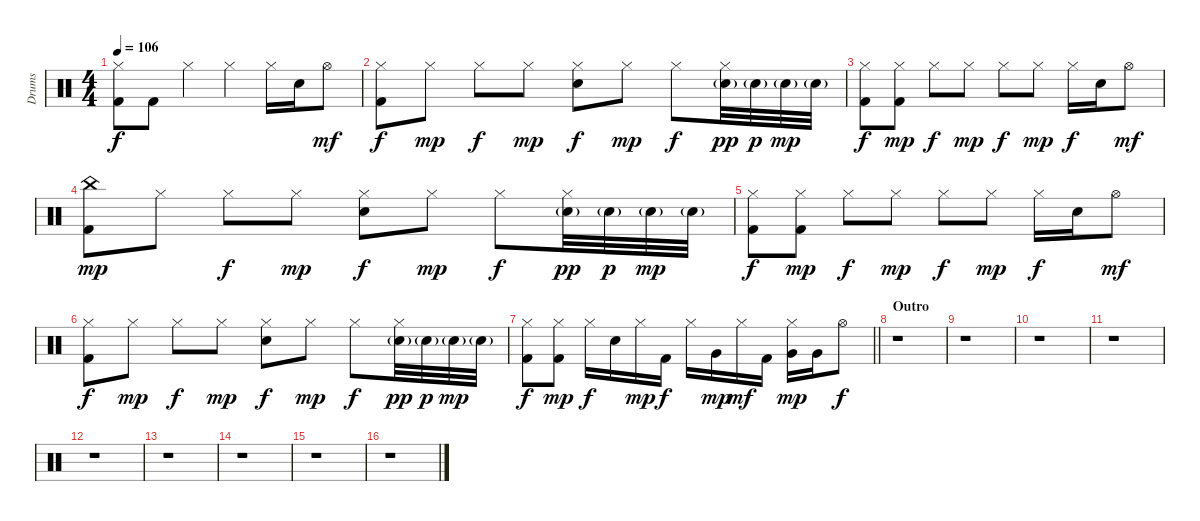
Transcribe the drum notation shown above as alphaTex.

\track ("Drums" "Drums") {instrument percussion}
\staff {score}
\articulation defaults
\ts (4 4)
\tempo 106
\clef neutral
\ks c
("Hi-Hat (closed)" "Kick (hit) 2").8{dy f} "Kick (hit) 2".8 "Hi-Hat (closed)".4 "Hi-Hat (closed)".4 "Hi-Hat (closed)".16 "Electric Snare (hit)".16 "Hi-Hat (open)".8{dy mf} |
("Hi-Hat (closed)" "Kick (hit) 2").8{dy f} "Hi-Hat (closed)".8{dy mp} "Hi-Hat (closed)".8{dy f} "Hi-Hat (closed)".8{dy mp} ("Hi-Hat (closed)" "Electric Snare (hit)").8{dy f} "Hi-Hat (closed)".8{dy mp} "Hi-Hat (closed)".8{dy f} ("Hi-Hat (closed)" "Electric Snare (hit)"{g}).32{dy pp} "Electric Snare (hit)"{g}.32{dy p} "Electric Snare (hit)"{g}.32{dy mp} "Electric Snare (hit)"{g}.32 |
("Hi-Hat (closed)" "Kick (hit) 2").8{dy f} ("Hi-Hat (closed)" "Kick (hit) 2").8{dy mp} "Hi-Hat (closed)".8{dy f} "Hi-Hat (closed)".8{dy mp} "Hi-Hat (closed)".8{dy f} "Hi-Hat (closed)".8{dy mp} "Hi-Hat (closed)".16{dy f} "Electric Snare (hit)".16 "Hi-Hat (open)".8{dy mf} |
("China (hit)" "Kick (hit) 2").8{dy mp} "Hi-Hat (closed)".8 "Hi-Hat (closed)".8{dy f} "Hi-Hat (closed)".8{dy mp} ("Hi-Hat (closed)" "Electric Snare (hit)").8{dy f} "Hi-Hat (closed)".8{dy mp} "Hi-Hat (closed)".8{dy f} ("Hi-Hat (closed)" "Electric Snare (hit)"{g}).32{dy pp} "Electric Snare (hit)"{g}.32{dy p} "Electric Snare (hit)"{g}.32{dy mp} "Electric Snare (hit)"{g}.32 |
("Hi-Hat (closed)" "Kick (hit) 2").8{dy f} ("Hi-Hat (closed)" "Kick (hit) 2").8{dy mp} "Hi-Hat (closed)".8{dy f} "Hi-Hat (closed)".8{dy mp} "Hi-Hat (closed)".8{dy f} "Hi-Hat (closed)".8{dy mp} "Hi-Hat (closed)".16{dy f} "Electric Snare (hit)".16 "Hi-Hat (open)".8{dy mf} |
("Hi-Hat (closed)" "Kick (hit) 2").8{dy f} "Hi-Hat (closed)".8{dy mp} "Hi-Hat (closed)".8{dy f} "Hi-Hat (closed)".8{dy mp} ("Hi-Hat (closed)" "Electric Snare (hit)").8{dy f} "Hi-Hat (closed)".8{dy mp} "Hi-Hat (closed)".8{dy f} ("Hi-Hat (closed)" "Electric Snare (hit)"{g}).32{dy pp} "Electric Snare (hit)"{g}.32{dy p} "Electric Snare (hit)"{g}.32{dy mp} "Electric Snare (hit)"{g}.32 |
\barLineRight lightlight
("Hi-Hat (closed)" "Kick (hit) 2").8{dy f} ("Hi-Hat (closed)" "Kick (hit) 2").8{dy mp} "Hi-Hat (closed)".16{dy f} "Electric Snare (hit)".16 "Hi-Hat (closed)".16{dy mp} "Kick (hit) 2".16{dy f} "Hi-Hat (closed)".16 "Very Low Tom (hit)".16{dy mp} "Hi-Hat (closed)".16{dy mf} "Kick (hit) 2".16 ("Hi-Hat (closed)" "Very Low Tom (hit)").16{dy mp} "Very Low Tom (hit)".16 "Hi-Hat (open)".8{dy f} |
\section ("" "Outro")
r.1 |
r.1 |
r.1 |
r.1 |
r.1 |
r.1 |
r.1 |
r.1 |
r.1
